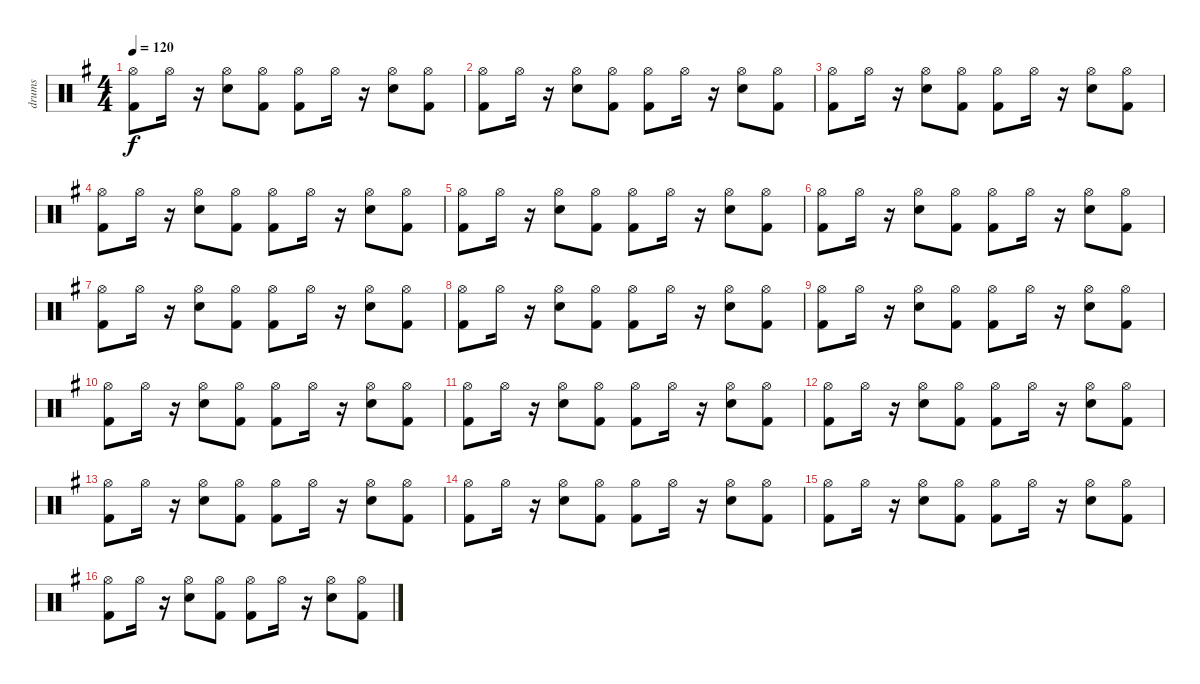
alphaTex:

\track ("drums" "drums") {instrument percussion bank 177}
\staff {score}
\articulation defaults
\ts (4 4)
\tempo 120
\clef neutral
\ks g
("Kick (hit) 2" "Hi-Hat (open)").8{dy f} "Hi-Hat (open)".16 r.16 ("Electric Snare (hit)" "Hi-Hat (open)").8 ("Kick (hit) 2" "Hi-Hat (open)").8 ("Kick (hit) 2" "Hi-Hat (open)").8 "Hi-Hat (open)".16 r.16 ("Electric Snare (hit)" "Hi-Hat (open)").8 ("Kick (hit) 2" "Hi-Hat (open)").8 |
("Kick (hit) 2" "Hi-Hat (open)").8 "Hi-Hat (open)".16 r.16 ("Electric Snare (hit)" "Hi-Hat (open)").8 ("Kick (hit) 2" "Hi-Hat (open)").8 ("Kick (hit) 2" "Hi-Hat (open)").8 "Hi-Hat (open)".16 r.16 ("Electric Snare (hit)" "Hi-Hat (open)").8 ("Kick (hit) 2" "Hi-Hat (open)").8 |
("Kick (hit) 2" "Hi-Hat (open)").8 "Hi-Hat (open)".16 r.16 ("Electric Snare (hit)" "Hi-Hat (open)").8 ("Kick (hit) 2" "Hi-Hat (open)").8 ("Kick (hit) 2" "Hi-Hat (open)").8 "Hi-Hat (open)".16 r.16 ("Electric Snare (hit)" "Hi-Hat (open)").8 ("Kick (hit) 2" "Hi-Hat (open)").8 |
("Kick (hit) 2" "Hi-Hat (open)").8 "Hi-Hat (open)".16 r.16 ("Electric Snare (hit)" "Hi-Hat (open)").8 ("Kick (hit) 2" "Hi-Hat (open)").8 ("Kick (hit) 2" "Hi-Hat (open)").8 "Hi-Hat (open)".16 r.16 ("Electric Snare (hit)" "Hi-Hat (open)").8 ("Kick (hit) 2" "Hi-Hat (open)").8 |
("Hi-Hat (open)" "Kick (hit) 2").8 "Hi-Hat (open)".16 r.16 ("Electric Snare (hit)" "Hi-Hat (open)").8 ("Kick (hit) 2" "Hi-Hat (open)").8 ("Kick (hit) 2" "Hi-Hat (open)").8 "Hi-Hat (open)".16 r.16 ("Electric Snare (hit)" "Hi-Hat (open)").8 ("Kick (hit) 2" "Hi-Hat (open)").8 |
("Kick (hit) 2" "Hi-Hat (open)").8 "Hi-Hat (open)".16 r.16 ("Electric Snare (hit)" "Hi-Hat (open)").8 ("Kick (hit) 2" "Hi-Hat (open)").8 ("Kick (hit) 2" "Hi-Hat (open)").8 "Hi-Hat (open)".16 r.16 ("Electric Snare (hit)" "Hi-Hat (open)").8 ("Kick (hit) 2" "Hi-Hat (open)").8 |
("Hi-Hat (open)" "Kick (hit) 2").8 "Hi-Hat (open)".16 r.16 ("Electric Snare (hit)" "Hi-Hat (open)").8 ("Kick (hit) 2" "Hi-Hat (open)").8 ("Kick (hit) 2" "Hi-Hat (open)").8 "Hi-Hat (open)".16 r.16 ("Electric Snare (hit)" "Hi-Hat (open)").8 ("Kick (hit) 2" "Hi-Hat (open)").8 |
("Kick (hit) 2" "Hi-Hat (open)").8 "Hi-Hat (open)".16 r.16 ("Electric Snare (hit)" "Hi-Hat (open)").8 ("Kick (hit) 2" "Hi-Hat (open)").8 ("Kick (hit) 2" "Hi-Hat (open)").8 "Hi-Hat (open)".16 r.16 ("Electric Snare (hit)" "Hi-Hat (open)").8 ("Kick (hit) 2" "Hi-Hat (open)").8 |
("Kick (hit) 2" "Hi-Hat (open)").8 "Hi-Hat (open)".16 r.16 ("Electric Snare (hit)" "Hi-Hat (open)").8 ("Kick (hit) 2" "Hi-Hat (open)").8 ("Kick (hit) 2" "Hi-Hat (open)").8 "Hi-Hat (open)".16 r.16 ("Electric Snare (hit)" "Hi-Hat (open)").8 ("Kick (hit) 2" "Hi-Hat (open)").8 |
("Kick (hit) 2" "Hi-Hat (open)").8 "Hi-Hat (open)".16 r.16 ("Electric Snare (hit)" "Hi-Hat (open)").8 ("Kick (hit) 2" "Hi-Hat (open)").8 ("Kick (hit) 2" "Hi-Hat (open)").8 "Hi-Hat (open)".16 r.16 ("Electric Snare (hit)" "Hi-Hat (open)").8 ("Kick (hit) 2" "Hi-Hat (open)").8 |
("Kick (hit) 2" "Hi-Hat (open)").8 "Hi-Hat (open)".16 r.16 ("Electric Snare (hit)" "Hi-Hat (open)").8 ("Kick (hit) 2" "Hi-Hat (open)").8 ("Kick (hit) 2" "Hi-Hat (open)").8 "Hi-Hat (open)".16 r.16 ("Electric Snare (hit)" "Hi-Hat (open)").8 ("Kick (hit) 2" "Hi-Hat (open)").8 |
("Kick (hit) 2" "Hi-Hat (open)").8 "Hi-Hat (open)".16 r.16 ("Electric Snare (hit)" "Hi-Hat (open)").8 ("Kick (hit) 2" "Hi-Hat (open)").8 ("Kick (hit) 2" "Hi-Hat (open)").8 "Hi-Hat (open)".16 r.16 ("Electric Snare (hit)" "Hi-Hat (open)").8 ("Kick (hit) 2" "Hi-Hat (open)").8 |
("Kick (hit) 2" "Hi-Hat (open)").8 "Hi-Hat (open)".16 r.16 ("Electric Snare (hit)" "Hi-Hat (open)").8 ("Kick (hit) 2" "Hi-Hat (open)").8 ("Kick (hit) 2" "Hi-Hat (open)").8 "Hi-Hat (open)".16 r.16 ("Electric Snare (hit)" "Hi-Hat (open)").8 ("Kick (hit) 2" "Hi-Hat (open)").8 |
("Kick (hit) 2" "Hi-Hat (open)").8 "Hi-Hat (open)".16 r.16 ("Electric Snare (hit)" "Hi-Hat (open)").8 ("Kick (hit) 2" "Hi-Hat (open)").8 ("Kick (hit) 2" "Hi-Hat (open)").8 "Hi-Hat (open)".16 r.16 ("Electric Snare (hit)" "Hi-Hat (open)").8 ("Kick (hit) 2" "Hi-Hat (open)").8 |
("Kick (hit) 2" "Hi-Hat (open)").8 "Hi-Hat (open)".16 r.16 ("Electric Snare (hit)" "Hi-Hat (open)").8 ("Kick (hit) 2" "Hi-Hat (open)").8 ("Kick (hit) 2" "Hi-Hat (open)").8 "Hi-Hat (open)".16 r.16 ("Electric Snare (hit)" "Hi-Hat (open)").8 ("Kick (hit) 2" "Hi-Hat (open)").8 |
("Kick (hit) 2" "Hi-Hat (open)").8 "Hi-Hat (open)".16 r.16 ("Electric Snare (hit)" "Hi-Hat (open)").8 ("Kick (hit) 2" "Hi-Hat (open)").8 ("Kick (hit) 2" "Hi-Hat (open)").8 "Hi-Hat (open)".16 r.16 ("Electric Snare (hit)" "Hi-Hat (open)").8 ("Kick (hit) 2" "Hi-Hat (open)").8
